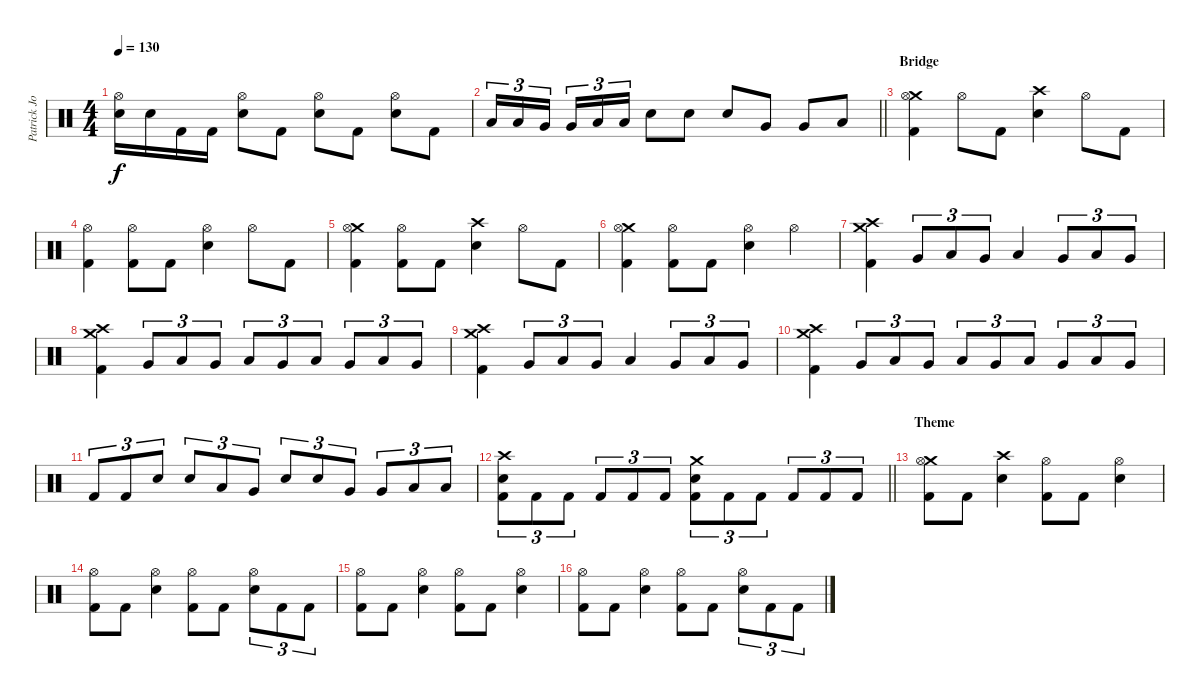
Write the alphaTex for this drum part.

\track ("Patrick Johansson " "Patrick Jo") {instrument percussion}
\staff {score}
\articulation defaults
\ts (4 4)
\tempo 130
\clef neutral
\ks c
("Hi-Hat (open)" "Snare (hit) 2").16{dy f} "Snare (hit) 2".16 "Kick (hit) 2".16 "Kick (hit) 2".16 ("Hi-Hat (open)" "Snare (hit) 2").8 "Kick (hit) 2".8 ("Hi-Hat (open)" "Snare (hit) 2").8 "Kick (hit) 2".8 ("Hi-Hat (open)" "Snare (hit) 2").8 "Kick (hit) 2".8 |
\barLineRight lightlight "Low Tom (hit)".16{tu (3 2)} "Low Tom (hit)".16{tu (3 2)} "Very Low Tom (hit)".16{tu (3 2) beam splitsecondary} "Very Low Tom (hit)".16{tu (3 2)} "Low Floor Tom (hit)".16{tu (3 2)} "Low Floor Tom (hit)".16{tu (3 2)} "Snare (hit) 2".8 "Snare (hit) 2".8 "Snare (hit) 2".8 "Very Low Tom (hit)".8 "Very Low Tom (hit)".8 "Low Floor Tom (hit)".8
|
\section ("" "Bridge")
("Crash medium (hit)" "Hi-Hat (open)" "Kick (hit) 2").4 "Hi-Hat (open)".8 "Kick (hit) 2".8 ("Crash high (hit)" "Snare (hit) 2").4 "Hi-Hat (open)".8 "Kick (hit) 2".8 |
("Hi-Hat (open)" "Kick (hit) 2").4 ("Hi-Hat (open)" "Kick (hit) 2").8 "Kick (hit) 2".8 ("Hi-Hat (open)" "Snare (hit) 2").4 "Hi-Hat (open)".8 "Kick (hit) 2".8 |
("Crash medium (hit)" "Hi-Hat (open)" "Kick (hit) 2").4 ("Hi-Hat (open)" "Kick (hit) 2").8 "Kick (hit) 2".8 ("Crash high (hit)" "Snare (hit) 2").4 "Hi-Hat (open)".8 "Kick (hit) 2".8 |
("Crash medium (hit)" "Hi-Hat (open)" "Kick (hit) 2").4 ("Hi-Hat (open)" "Kick (hit) 2").8 "Kick (hit) 2".8 ("Hi-Hat (open)" "Snare (hit) 2").4 "Hi-Hat (open)".4 |
("Crash medium (hit)" "Crash high (hit)" "Kick (hit) 2").4 "Very Low Tom (hit)".8{tu (3 2)} "Low Floor Tom (hit)".8{tu (3 2)} "Very Low Tom (hit)".8{tu (3 2)} "Low Floor Tom (hit)".4 "Very Low Tom (hit)".8{tu (3 2)} "Low Floor Tom (hit)".8{tu (3 2)} "Very Low Tom (hit)".8{tu (3 2)} |
("Crash medium (hit)" "Crash high (hit)" "Kick (hit) 2").4 "Very Low Tom (hit)".8{tu (3 2)} "Low Floor Tom (hit)".8{tu (3 2)} "Very Low Tom (hit)".8{tu (3 2)} "Low Floor Tom (hit)".8{tu (3 2)} "Very Low Tom (hit)".8{tu (3 2)} "Low Floor Tom (hit)".8{tu (3 2)} "Very Low Tom (hit)".8{tu (3 2)} "Low Floor Tom (hit)".8{tu (3 2)} "Very Low Tom (hit)".8{tu (3 2)} |
("Crash medium (hit)" "Crash high (hit)" "Kick (hit) 2").4 "Very Low Tom (hit)".8{tu (3 2)} "Low Floor Tom (hit)".8{tu (3 2)} "Very Low Tom (hit)".8{tu (3 2)} "Low Floor Tom (hit)".4 "Very Low Tom (hit)".8{tu (3 2)} "Low Floor Tom (hit)".8{tu (3 2)} "Very Low Tom (hit)".8{tu (3 2)} |
("Crash medium (hit)" "Crash high (hit)" "Kick (hit) 2").4 "Very Low Tom (hit)".8{tu (3 2)} "Low Floor Tom (hit)".8{tu (3 2)} "Very Low Tom (hit)".8{tu (3 2)} "Low Floor Tom (hit)".8{tu (3 2)} "Very Low Tom (hit)".8{tu (3 2)} "Low Floor Tom (hit)".8{tu (3 2)} "Very Low Tom (hit)".8{tu (3 2)} "Low Floor Tom (hit)".8{tu (3 2)} "Very Low Tom (hit)".8{tu (3 2)} |
"Kick (hit) 2".8{tu (3 2)} "Kick (hit) 2".8{tu (3 2)} "Snare (hit) 2".8{tu (3 2)} "Snare (hit) 2".8{tu (3 2)} "Low Tom (hit)".8{tu (3 2)} "Very Low Tom (hit)".8{tu (3 2)} "Snare (hit) 2".8{tu (3 2)} "Snare (hit) 2".8{tu (3 2)} "Very Low Tom (hit)".8{tu (3 2)} "Very Low Tom (hit)".8{tu (3 2)} "Low Floor Tom (hit)".8{tu (3 2)} "Low Floor Tom (hit)".8{tu (3 2)} |
\barLineRight lightlight
("Crash high (hit)" "Snare (hit) 2" "Kick (hit) 2").8{tu (3 2)} "Kick (hit) 2".8{tu (3 2)} "Kick (hit) 2".8{tu (3 2)} "Kick (hit) 2".8{tu (3 2)} "Kick (hit) 2".8{tu (3 2)} "Kick (hit) 2".8{tu (3 2)} ("Crash medium (hit)" "Snare (hit) 2" "Kick (hit) 2").8{tu (3 2)} "Kick (hit) 2".8{tu (3 2)} "Kick (hit) 2".8{tu (3 2)} "Kick (hit) 2".8{tu (3 2)} "Kick (hit) 2".8{tu (3 2)} "Kick (hit) 2".8{tu (3 2)} |
\section ("" "Theme")
("Crash medium (hit)" "Hi-Hat (open)" "Kick (hit) 2").8 "Kick (hit) 2".8 ("Crash high (hit)" "Snare (hit) 2").4 ("Hi-Hat (open)" "Kick (hit) 2").8 "Kick (hit) 2".8 ("Hi-Hat (open)" "Snare (hit) 2").4 |
("Hi-Hat (open)" "Kick (hit) 2").8 "Kick (hit) 2".8 ("Hi-Hat (open)" "Snare (hit) 2").4 ("Hi-Hat (open)" "Kick (hit) 2").8 "Kick (hit) 2".8 ("Hi-Hat (open)" "Snare (hit) 2").8{tu (3 2)} "Kick (hit) 2".8{tu (3 2)} "Kick (hit) 2".8{tu (3 2)} |
("Hi-Hat (open)" "Kick (hit) 2").8 "Kick (hit) 2".8 ("Hi-Hat (open)" "Snare (hit) 2").4 ("Hi-Hat (open)" "Kick (hit) 2").8 "Kick (hit) 2".8 ("Hi-Hat (open)" "Snare (hit) 2").4 |
("Hi-Hat (open)" "Kick (hit) 2").8 "Kick (hit) 2".8 ("Hi-Hat (open)" "Snare (hit) 2").4 ("Hi-Hat (open)" "Kick (hit) 2").8 "Kick (hit) 2".8 ("Hi-Hat (open)" "Snare (hit) 2").8{tu (3 2)} "Kick (hit) 2".8{tu (3 2)} "Kick (hit) 2".8{tu (3 2)}
